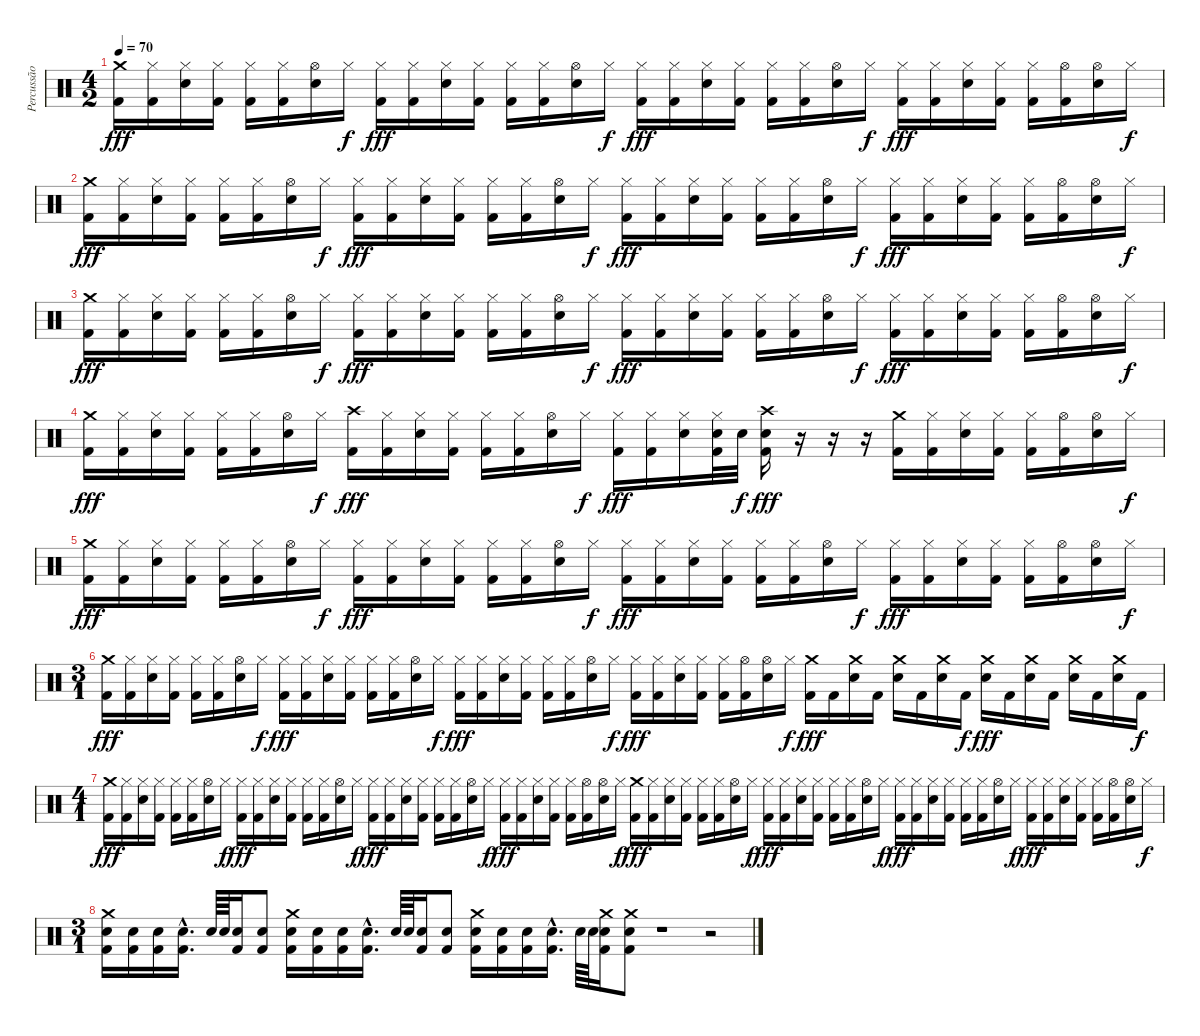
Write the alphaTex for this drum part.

\track ("Percussão" "Percussão") {instrument percussion}
\staff {score}
\articulation defaults
\ts (4 2)
\tempo 70
\clef neutral
\ks c
("Crash medium (hit)" "Kick (hit) 2").16{dy fff} ("Hi-Hat (closed)" "Kick (hit) 2").16 ("Hi-Hat (closed)" "Electric Snare (hit)").16 ("Hi-Hat (closed)" "Kick (hit) 2").16 ("Hi-Hat (closed)" "Kick (hit) 2").16 ("Hi-Hat (closed)" "Kick (hit) 2").16 ("Hi-Hat (open)" "Electric Snare (hit)").16 "Hi-Hat (closed)".16{dy f} ("Hi-Hat (closed)" "Kick (hit) 2").16{dy fff} ("Hi-Hat (closed)" "Kick (hit) 2").16 ("Hi-Hat (closed)" "Electric Snare (hit)").16 ("Hi-Hat (closed)" "Kick (hit) 2").16 ("Hi-Hat (closed)" "Kick (hit) 2").16 ("Hi-Hat (closed)" "Kick (hit) 2").16 ("Hi-Hat (open)" "Electric Snare (hit)").16 "Hi-Hat (closed)".16{dy f} ("Hi-Hat (closed)" "Kick (hit) 2").16{dy fff} ("Hi-Hat (closed)" "Kick (hit) 2").16 ("Hi-Hat (closed)" "Electric Snare (hit)").16 ("Hi-Hat (closed)" "Kick (hit) 2").16 ("Hi-Hat (closed)" "Kick (hit) 2").16 ("Hi-Hat (closed)" "Kick (hit) 2").16 ("Hi-Hat (open)" "Electric Snare (hit)").16 "Hi-Hat (closed)".16{dy f} ("Hi-Hat (closed)" "Kick (hit) 2").16{dy fff} ("Hi-Hat (closed)" "Kick (hit) 2").16 ("Hi-Hat (closed)" "Electric Snare (hit)").16 ("Hi-Hat (closed)" "Kick (hit) 2").16 ("Hi-Hat (closed)" "Kick (hit) 2").16 ("Hi-Hat (open)" "Kick (hit) 2").16 ("Hi-Hat (open)" "Electric Snare (hit)").16 "Hi-Hat (closed)".16{dy f} |
("Crash medium (hit)" "Kick (hit) 2").16{dy fff} ("Hi-Hat (closed)" "Kick (hit) 2").16 ("Hi-Hat (closed)" "Electric Snare (hit)").16 ("Hi-Hat (closed)" "Kick (hit) 2").16 ("Hi-Hat (closed)" "Kick (hit) 2").16 ("Hi-Hat (closed)" "Kick (hit) 2").16 ("Hi-Hat (open)" "Electric Snare (hit)").16 "Hi-Hat (closed)".16{dy f} ("Hi-Hat (closed)" "Kick (hit) 2").16{dy fff} ("Hi-Hat (closed)" "Kick (hit) 2").16 ("Hi-Hat (closed)" "Electric Snare (hit)").16 ("Hi-Hat (closed)" "Kick (hit) 2").16 ("Hi-Hat (closed)" "Kick (hit) 2").16 ("Hi-Hat (closed)" "Kick (hit) 2").16 ("Hi-Hat (open)" "Electric Snare (hit)").16 "Hi-Hat (closed)".16{dy f} ("Hi-Hat (closed)" "Kick (hit) 2").16{dy fff} ("Hi-Hat (closed)" "Kick (hit) 2").16 ("Hi-Hat (closed)" "Electric Snare (hit)").16 ("Hi-Hat (closed)" "Kick (hit) 2").16 ("Hi-Hat (closed)" "Kick (hit) 2").16 ("Hi-Hat (closed)" "Kick (hit) 2").16 ("Hi-Hat (open)" "Electric Snare (hit)").16 "Hi-Hat (closed)".16{dy f} ("Hi-Hat (closed)" "Kick (hit) 2").16{dy fff} ("Hi-Hat (closed)" "Kick (hit) 2").16 ("Hi-Hat (closed)" "Electric Snare (hit)").16 ("Hi-Hat (closed)" "Kick (hit) 2").16 ("Hi-Hat (closed)" "Kick (hit) 2").16 ("Hi-Hat (open)" "Kick (hit) 2").16 ("Hi-Hat (open)" "Electric Snare (hit)").16 "Hi-Hat (closed)".16{dy f} |
("Crash medium (hit)" "Kick (hit) 2").16{dy fff} ("Hi-Hat (closed)" "Kick (hit) 2").16 ("Hi-Hat (closed)" "Electric Snare (hit)").16 ("Hi-Hat (closed)" "Kick (hit) 2").16 ("Hi-Hat (closed)" "Kick (hit) 2").16 ("Hi-Hat (closed)" "Kick (hit) 2").16 ("Hi-Hat (open)" "Electric Snare (hit)").16 "Hi-Hat (closed)".16{dy f} ("Hi-Hat (closed)" "Kick (hit) 2").16{dy fff} ("Hi-Hat (closed)" "Kick (hit) 2").16 ("Hi-Hat (closed)" "Electric Snare (hit)").16 ("Hi-Hat (closed)" "Kick (hit) 2").16 ("Hi-Hat (closed)" "Kick (hit) 2").16 ("Hi-Hat (closed)" "Kick (hit) 2").16 ("Hi-Hat (open)" "Electric Snare (hit)").16 "Hi-Hat (closed)".16{dy f} ("Hi-Hat (closed)" "Kick (hit) 2").16{dy fff} ("Hi-Hat (closed)" "Kick (hit) 2").16 ("Hi-Hat (closed)" "Electric Snare (hit)").16 ("Hi-Hat (closed)" "Kick (hit) 2").16 ("Hi-Hat (closed)" "Kick (hit) 2").16 ("Hi-Hat (closed)" "Kick (hit) 2").16 ("Hi-Hat (open)" "Electric Snare (hit)").16 "Hi-Hat (closed)".16{dy f} ("Hi-Hat (closed)" "Kick (hit) 2").16{dy fff} ("Hi-Hat (closed)" "Kick (hit) 2").16 ("Hi-Hat (closed)" "Electric Snare (hit)").16 ("Hi-Hat (closed)" "Kick (hit) 2").16 ("Hi-Hat (closed)" "Kick (hit) 2").16 ("Hi-Hat (open)" "Kick (hit) 2").16 ("Hi-Hat (open)" "Electric Snare (hit)").16 "Hi-Hat (closed)".16{dy f} |
("Crash medium (hit)" "Kick (hit) 2").16{dy fff} ("Hi-Hat (closed)" "Kick (hit) 2").16 ("Hi-Hat (closed)" "Electric Snare (hit)").16 ("Hi-Hat (closed)" "Kick (hit) 2").16 ("Hi-Hat (closed)" "Kick (hit) 2").16 ("Hi-Hat (closed)" "Kick (hit) 2").16 ("Hi-Hat (open)" "Electric Snare (hit)").16 "Hi-Hat (closed)".16{dy f} ("Crash high (hit)" "Kick (hit) 2").16{dy fff} ("Hi-Hat (closed)" "Kick (hit) 2").16 ("Hi-Hat (closed)" "Electric Snare (hit)").16 ("Hi-Hat (closed)" "Kick (hit) 2").16 ("Hi-Hat (closed)" "Kick (hit) 2").16 ("Hi-Hat (closed)" "Kick (hit) 2").16 ("Hi-Hat (open)" "Electric Snare (hit)").16 "Hi-Hat (closed)".16{dy f} ("Hi-Hat (closed)" "Kick (hit) 2").16{dy fff} ("Hi-Hat (closed)" "Kick (hit) 2").16 ("Hi-Hat (closed)" "Electric Snare (hit)").16 ("Hi-Hat (closed)" "Electric Snare (hit)" "Kick (hit) 2").32 "Electric Snare (hit)".32{dy f} ("Crash high (hit)" "Electric Snare (hit)" "Kick (hit) 2").16{dy fff} r.16 r.16 r.16 ("Crash medium (hit)" "Kick (hit) 2").16 ("Hi-Hat (closed)" "Kick (hit) 2").16 ("Hi-Hat (closed)" "Electric Snare (hit)").16 ("Hi-Hat (closed)" "Kick (hit) 2").16 ("Hi-Hat (closed)" "Kick (hit) 2").16 ("Hi-Hat (open)" "Kick (hit) 2").16 ("Hi-Hat (open)" "Electric Snare (hit)").16 "Hi-Hat (closed)".16{dy f} |
("Crash medium (hit)" "Kick (hit) 2").16{dy fff} ("Hi-Hat (closed)" "Kick (hit) 2").16 ("Hi-Hat (closed)" "Electric Snare (hit)").16 ("Hi-Hat (closed)" "Kick (hit) 2").16 ("Hi-Hat (closed)" "Kick (hit) 2").16 ("Hi-Hat (closed)" "Kick (hit) 2").16 ("Hi-Hat (open)" "Electric Snare (hit)").16 "Hi-Hat (closed)".16{dy f} ("Hi-Hat (closed)" "Kick (hit) 2").16{dy fff} ("Hi-Hat (closed)" "Kick (hit) 2").16 ("Hi-Hat (closed)" "Electric Snare (hit)").16 ("Hi-Hat (closed)" "Kick (hit) 2").16 ("Hi-Hat (closed)" "Kick (hit) 2").16 ("Hi-Hat (closed)" "Kick (hit) 2").16 ("Hi-Hat (open)" "Electric Snare (hit)").16 "Hi-Hat (closed)".16{dy f} ("Hi-Hat (closed)" "Kick (hit) 2").16{dy fff} ("Hi-Hat (closed)" "Kick (hit) 2").16 ("Hi-Hat (closed)" "Electric Snare (hit)").16 ("Hi-Hat (closed)" "Kick (hit) 2").16 ("Hi-Hat (closed)" "Kick (hit) 2").16 ("Hi-Hat (closed)" "Kick (hit) 2").16 ("Hi-Hat (open)" "Electric Snare (hit)").16 "Hi-Hat (closed)".16{dy f} ("Hi-Hat (closed)" "Kick (hit) 2").16{dy fff} ("Hi-Hat (closed)" "Kick (hit) 2").16 ("Hi-Hat (closed)" "Electric Snare (hit)").16 ("Hi-Hat (closed)" "Kick (hit) 2").16 ("Hi-Hat (closed)" "Kick (hit) 2").16 ("Hi-Hat (open)" "Kick (hit) 2").16 ("Hi-Hat (open)" "Electric Snare (hit)").16 "Hi-Hat (closed)".16{dy f} |
\ts (3 1)
("Crash medium (hit)" "Kick (hit) 2").16{dy fff} ("Hi-Hat (closed)" "Kick (hit) 2").16 ("Hi-Hat (closed)" "Electric Snare (hit)").16 ("Hi-Hat (closed)" "Kick (hit) 2").16 ("Hi-Hat (closed)" "Kick (hit) 2").16 ("Hi-Hat (closed)" "Kick (hit) 2").16 ("Hi-Hat (open)" "Electric Snare (hit)").16 "Hi-Hat (closed)".16{dy f} ("Hi-Hat (closed)" "Kick (hit) 2").16{dy fff} ("Hi-Hat (closed)" "Kick (hit) 2").16 ("Hi-Hat (closed)" "Electric Snare (hit)").16 ("Hi-Hat (closed)" "Kick (hit) 2").16 ("Hi-Hat (closed)" "Kick (hit) 2").16 ("Hi-Hat (closed)" "Kick (hit) 2").16 ("Hi-Hat (open)" "Electric Snare (hit)").16 "Hi-Hat (closed)".16{dy f} ("Hi-Hat (closed)" "Kick (hit) 2").16{dy fff} ("Hi-Hat (closed)" "Kick (hit) 2").16 ("Hi-Hat (closed)" "Electric Snare (hit)").16 ("Hi-Hat (closed)" "Kick (hit) 2").16 ("Hi-Hat (closed)" "Kick (hit) 2").16 ("Hi-Hat (closed)" "Kick (hit) 2").16 ("Hi-Hat (open)" "Electric Snare (hit)").16 "Hi-Hat (closed)".16{dy f} ("Hi-Hat (closed)" "Kick (hit) 2").16{dy fff} ("Hi-Hat (closed)" "Kick (hit) 2").16 ("Hi-Hat (closed)" "Electric Snare (hit)").16 ("Hi-Hat (closed)" "Kick (hit) 2").16 ("Hi-Hat (closed)" "Kick (hit) 2").16 ("Hi-Hat (open)" "Kick (hit) 2").16 ("Hi-Hat (open)" "Electric Snare (hit)").16 "Hi-Hat (closed)".16{dy f} ("Crash medium (hit)" "Kick (hit) 2").16{dy fff} "Kick (hit) 2".16 ("Crash medium (hit)" "Electric Snare (hit)").16 "Kick (hit) 2".16 ("Crash medium (hit)" "Electric Snare (hit)").16 "Kick (hit) 2".16 ("Crash medium (hit)" "Electric Snare (hit)").16 "Kick (hit) 2".16{dy f} ("Crash medium (hit)" "Electric Snare (hit)").16{dy fff} "Kick (hit) 2".16 ("Crash medium (hit)" "Electric Snare (hit)").16 "Kick (hit) 2".16 ("Crash medium (hit)" "Electric Snare (hit)").16 "Kick (hit) 2".16 ("Crash medium (hit)" "Electric Snare (hit)").16 "Kick (hit) 2".16{dy f} |
\ts (4 1)
("Crash medium (hit)" "Kick (hit) 2").16{dy fff} ("Hi-Hat (closed)" "Kick (hit) 2").16 ("Hi-Hat (closed)" "Electric Snare (hit)").16 ("Hi-Hat (closed)" "Kick (hit) 2").16 ("Hi-Hat (closed)" "Kick (hit) 2").16 ("Hi-Hat (closed)" "Kick (hit) 2").16 ("Hi-Hat (open)" "Electric Snare (hit)").16 "Hi-Hat (closed)".16{dy f} ("Hi-Hat (closed)" "Kick (hit) 2").16{dy fff} ("Hi-Hat (closed)" "Kick (hit) 2").16 ("Hi-Hat (closed)" "Electric Snare (hit)").16 ("Hi-Hat (closed)" "Kick (hit) 2").16 ("Hi-Hat (closed)" "Kick (hit) 2").16 ("Hi-Hat (closed)" "Kick (hit) 2").16 ("Hi-Hat (open)" "Electric Snare (hit)").16 "Hi-Hat (closed)".16{dy f} ("Hi-Hat (closed)" "Kick (hit) 2").16{dy fff} ("Hi-Hat (closed)" "Kick (hit) 2").16 ("Hi-Hat (closed)" "Electric Snare (hit)").16 ("Hi-Hat (closed)" "Kick (hit) 2").16 ("Hi-Hat (closed)" "Kick (hit) 2").16 ("Hi-Hat (closed)" "Kick (hit) 2").16 ("Hi-Hat (open)" "Electric Snare (hit)").16 "Hi-Hat (closed)".16{dy f} ("Hi-Hat (closed)" "Kick (hit) 2").16{dy fff} ("Hi-Hat (closed)" "Kick (hit) 2").16 ("Hi-Hat (closed)" "Electric Snare (hit)").16 ("Hi-Hat (closed)" "Kick (hit) 2").16 ("Hi-Hat (closed)" "Kick (hit) 2").16 ("Hi-Hat (open)" "Kick (hit) 2").16 ("Hi-Hat (open)" "Electric Snare (hit)").16 "Hi-Hat (closed)".16{dy f} ("Crash medium (hit)" "Kick (hit) 2").16{dy fff} ("Hi-Hat (closed)" "Kick (hit) 2").16 ("Hi-Hat (closed)" "Electric Snare (hit)").16 ("Hi-Hat (closed)" "Kick (hit) 2").16 ("Hi-Hat (closed)" "Kick (hit) 2").16 ("Hi-Hat (closed)" "Kick (hit) 2").16 ("Hi-Hat (open)" "Electric Snare (hit)").16 "Hi-Hat (closed)".16{dy f} ("Hi-Hat (closed)" "Kick (hit) 2").16{dy fff} ("Hi-Hat (closed)" "Kick (hit) 2").16 ("Hi-Hat (closed)" "Electric Snare (hit)").16 ("Hi-Hat (closed)" "Kick (hit) 2").16 ("Hi-Hat (closed)" "Kick (hit) 2").16 ("Hi-Hat (closed)" "Kick (hit) 2").16 ("Hi-Hat (open)" "Electric Snare (hit)").16 "Hi-Hat (closed)".16{dy f} ("Hi-Hat (closed)" "Kick (hit) 2").16{dy fff} ("Hi-Hat (closed)" "Kick (hit) 2").16 ("Hi-Hat (closed)" "Electric Snare (hit)").16 ("Hi-Hat (closed)" "Kick (hit) 2").16 ("Hi-Hat (closed)" "Kick (hit) 2").16 ("Hi-Hat (closed)" "Kick (hit) 2").16 ("Hi-Hat (open)" "Electric Snare (hit)").16 "Hi-Hat (closed)".16{dy f} ("Hi-Hat (closed)" "Kick (hit) 2").16{dy fff} ("Hi-Hat (closed)" "Kick (hit) 2").16 ("Hi-Hat (closed)" "Electric Snare (hit)").16 ("Hi-Hat (closed)" "Kick (hit) 2").16 ("Hi-Hat (closed)" "Kick (hit) 2").16 ("Hi-Hat (open)" "Kick (hit) 2").16 ("Hi-Hat (open)" "Electric Snare (hit)").16 "Hi-Hat (closed)".16{dy f} |
\ts (3 1)
("Crash medium (hit)" "Electric Snare (hit)" "Kick (hit) 2").16 ("Electric Snare (hit)" "Kick (hit) 2").16 ("Electric Snare (hit)" "Kick (hit) 2").16 ("Electric Snare (hit)"{hac} "Kick (hit) 2"{hac}).16{d} "Electric Snare (hit)".64 "Electric Snare (hit)".64 ("Electric Snare (hit)" "Kick (hit) 2").16 ("Electric Snare (hit)" "Kick (hit) 2").8 ("Crash medium (hit)" "Electric Snare (hit)" "Kick (hit) 2").16 ("Electric Snare (hit)" "Kick (hit) 2").16 ("Electric Snare (hit)" "Kick (hit) 2").16 ("Electric Snare (hit)"{hac} "Kick (hit) 2"{hac}).16{d} "Electric Snare (hit)".64 "Electric Snare (hit)".64 ("Electric Snare (hit)" "Kick (hit) 2").16 ("Electric Snare (hit)" "Kick (hit) 2").8 ("Crash medium (hit)" "Electric Snare (hit)" "Kick (hit) 2").16 ("Electric Snare (hit)" "Kick (hit) 2").16 ("Electric Snare (hit)" "Kick (hit) 2").16 ("Electric Snare (hit)"{hac} "Kick (hit) 2"{hac}).16{d} "Electric Snare (hit)".64 "Electric Snare (hit)".64 ("Crash medium (hit)" "Electric Snare (hit)" "Kick (hit) 2").16 ("Crash medium (hit)" "Electric Snare (hit)" "Kick (hit) 2").8 r.1 r.2
